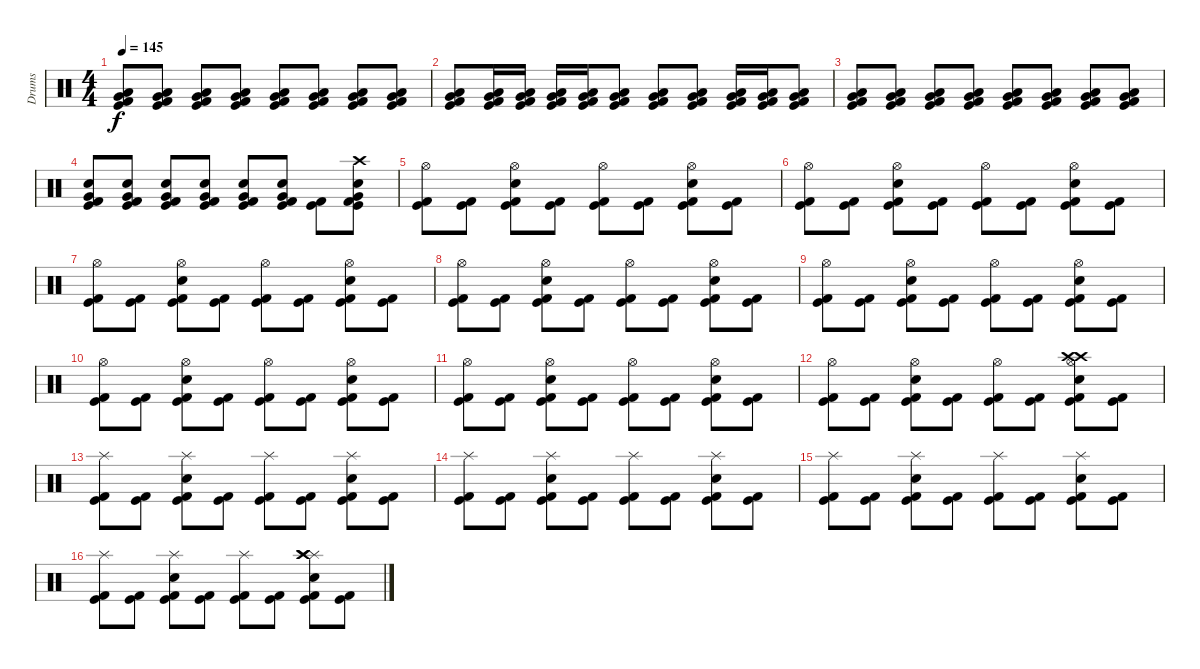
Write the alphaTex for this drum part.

\track ("Drums" "Drums") {instrument percussion}
\staff {score}
\articulation defaults
\ts (4 4)
\tempo 145
\clef neutral
\ks c
("Very Low Tom (hit)" "Low Floor Tom (hit)" "Kick (hit) 2" "Kick (hit)").8{dy f} ("Very Low Tom (hit)" "Low Floor Tom (hit)" "Kick (hit) 2" "Kick (hit)").8 ("Very Low Tom (hit)" "Low Floor Tom (hit)" "Kick (hit) 2" "Kick (hit)").8 ("Very Low Tom (hit)" "Low Floor Tom (hit)" "Kick (hit) 2" "Kick (hit)").8 ("Very Low Tom (hit)" "Low Floor Tom (hit)" "Kick (hit) 2" "Kick (hit)").8 ("Very Low Tom (hit)" "Low Floor Tom (hit)" "Kick (hit) 2" "Kick (hit)").8 ("Very Low Tom (hit)" "Low Floor Tom (hit)" "Kick (hit) 2" "Kick (hit)").8 ("Very Low Tom (hit)" "Low Floor Tom (hit)" "Kick (hit) 2" "Kick (hit)").8 |
("Very Low Tom (hit)" "Low Floor Tom (hit)" "Kick (hit) 2" "Kick (hit)").8 ("Very Low Tom (hit)" "Low Floor Tom (hit)" "Kick (hit) 2" "Kick (hit)").16 ("Very Low Tom (hit)" "Low Floor Tom (hit)" "Kick (hit) 2" "Kick (hit)").16 ("Very Low Tom (hit)" "Low Floor Tom (hit)" "Kick (hit) 2" "Kick (hit)").16 ("Very Low Tom (hit)" "Low Floor Tom (hit)" "Kick (hit) 2" "Kick (hit)").16 ("Very Low Tom (hit)" "Low Floor Tom (hit)" "Kick (hit) 2" "Kick (hit)").8 ("Low Tom (hit)" "Very Low Tom (hit)" "Kick (hit) 2" "Kick (hit)").8 ("Low Tom (hit)" "Very Low Tom (hit)" "Kick (hit) 2" "Kick (hit)").8 ("Low Tom (hit)" "Very Low Tom (hit)" "Kick (hit) 2" "Kick (hit)").16 ("Very Low Tom (hit)" "Low Floor Tom (hit)" "Kick (hit) 2" "Kick (hit)").16 ("Very Low Tom (hit)" "Low Floor Tom (hit)" "Kick (hit) 2" "Kick (hit)").8 |
("Very Low Tom (hit)" "Low Floor Tom (hit)" "Kick (hit) 2" "Kick (hit)").8 ("Very Low Tom (hit)" "Low Floor Tom (hit)" "Kick (hit) 2" "Kick (hit)").8 ("Very Low Tom (hit)" "Low Floor Tom (hit)" "Kick (hit) 2" "Kick (hit)").8 ("Very Low Tom (hit)" "Low Floor Tom (hit)" "Kick (hit) 2" "Kick (hit)").8 ("Very Low Tom (hit)" "Low Floor Tom (hit)" "Kick (hit) 2" "Kick (hit)").8 ("Very Low Tom (hit)" "Low Floor Tom (hit)" "Kick (hit) 2" "Kick (hit)").8 ("Very Low Tom (hit)" "Low Floor Tom (hit)" "Kick (hit) 2" "Kick (hit)").8 ("Very Low Tom (hit)" "Low Floor Tom (hit)" "Kick (hit) 2" "Kick (hit)").8 |
("Very Low Tom (hit)" "Snare (hit) 2" "Kick (hit) 2" "Kick (hit)").8 ("Very Low Tom (hit)" "Snare (hit) 2" "Kick (hit) 2" "Kick (hit)").8 ("Very Low Tom (hit)" "Snare (hit) 2" "Kick (hit) 2" "Kick (hit)").8 ("Very Low Tom (hit)" "Snare (hit) 2" "Kick (hit) 2" "Kick (hit)").8 ("Very Low Tom (hit)" "Snare (hit) 2" "Kick (hit) 2" "Kick (hit)").8 ("Very Low Tom (hit)" "Snare (hit) 2" "Kick (hit) 2" "Kick (hit)").8 ("Kick (hit) 2" "Kick (hit)").8 ("Very Low Tom (hit)" "Snare (hit) 2" "Kick (hit) 2" "Crash high (hit)" "Kick (hit)").8 |
("Hi-Hat (open)" "Kick (hit) 2" "Kick (hit)").8 ("Kick (hit) 2" "Kick (hit)").8 ("Hi-Hat (open)" "Snare (hit) 2" "Kick (hit) 2" "Kick (hit)").8 ("Kick (hit) 2" "Kick (hit)").8 ("Hi-Hat (open)" "Kick (hit) 2" "Kick (hit)").8 ("Kick (hit) 2" "Kick (hit)").8 ("Hi-Hat (open)" "Snare (hit) 2" "Kick (hit) 2" "Kick (hit)").8 ("Kick (hit) 2" "Kick (hit)").8 |
("Hi-Hat (open)" "Kick (hit) 2" "Kick (hit)").8 ("Kick (hit) 2" "Kick (hit)").8 ("Hi-Hat (open)" "Snare (hit) 2" "Kick (hit) 2" "Kick (hit)").8 ("Kick (hit) 2" "Kick (hit)").8 ("Hi-Hat (open)" "Kick (hit) 2" "Kick (hit)").8 ("Kick (hit) 2" "Kick (hit)").8 ("Hi-Hat (open)" "Snare (hit) 2" "Kick (hit) 2" "Kick (hit)").8 ("Kick (hit) 2" "Kick (hit)").8 |
("Hi-Hat (open)" "Kick (hit) 2" "Kick (hit)").8 ("Kick (hit) 2" "Kick (hit)").8 ("Hi-Hat (open)" "Snare (hit) 2" "Kick (hit) 2" "Kick (hit)").8 ("Kick (hit) 2" "Kick (hit)").8 ("Hi-Hat (open)" "Kick (hit) 2" "Kick (hit)").8 ("Kick (hit) 2" "Kick (hit)").8 ("Hi-Hat (open)" "Snare (hit) 2" "Kick (hit) 2" "Kick (hit)").8 ("Kick (hit) 2" "Kick (hit)").8 |
("Hi-Hat (open)" "Kick (hit) 2" "Kick (hit)").8 ("Kick (hit) 2" "Kick (hit)").8 ("Hi-Hat (open)" "Snare (hit) 2" "Kick (hit) 2" "Kick (hit)").8 ("Kick (hit) 2" "Kick (hit)").8 ("Hi-Hat (open)" "Kick (hit) 2" "Kick (hit)").8 ("Kick (hit) 2" "Kick (hit)").8 ("Hi-Hat (open)" "Snare (hit) 2" "Kick (hit) 2" "Kick (hit)").8 ("Kick (hit) 2" "Kick (hit)").8 |
("Hi-Hat (open)" "Kick (hit) 2" "Kick (hit)").8 ("Kick (hit) 2" "Kick (hit)").8 ("Hi-Hat (open)" "Snare (hit) 2" "Kick (hit) 2" "Kick (hit)").8 ("Kick (hit) 2" "Kick (hit)").8 ("Hi-Hat (open)" "Kick (hit) 2" "Kick (hit)").8 ("Kick (hit) 2" "Kick (hit)").8 ("Hi-Hat (open)" "Snare (hit) 2" "Kick (hit) 2" "Kick (hit)").8 ("Kick (hit) 2" "Kick (hit)").8 |
("Hi-Hat (open)" "Kick (hit) 2" "Kick (hit)").8 ("Kick (hit) 2" "Kick (hit)").8 ("Hi-Hat (open)" "Snare (hit) 2" "Kick (hit) 2" "Kick (hit)").8 ("Kick (hit) 2" "Kick (hit)").8 ("Hi-Hat (open)" "Kick (hit) 2" "Kick (hit)").8 ("Kick (hit) 2" "Kick (hit)").8 ("Hi-Hat (open)" "Snare (hit) 2" "Kick (hit) 2" "Kick (hit)").8 ("Kick (hit) 2" "Kick (hit)").8 |
("Hi-Hat (open)" "Kick (hit) 2" "Kick (hit)").8 ("Kick (hit) 2" "Kick (hit)").8 ("Hi-Hat (open)" "Snare (hit) 2" "Kick (hit) 2" "Kick (hit)").8 ("Kick (hit) 2" "Kick (hit)").8 ("Hi-Hat (open)" "Kick (hit) 2" "Kick (hit)").8 ("Kick (hit) 2" "Kick (hit)").8 ("Hi-Hat (open)" "Snare (hit) 2" "Kick (hit) 2" "Kick (hit)").8 ("Kick (hit) 2" "Kick (hit)").8 |
("Hi-Hat (open)" "Kick (hit) 2" "Kick (hit)").8 ("Kick (hit) 2" "Kick (hit)").8 ("Hi-Hat (open)" "Snare (hit) 2" "Kick (hit) 2" "Kick (hit)").8 ("Kick (hit) 2" "Kick (hit)").8 ("Hi-Hat (open)" "Kick (hit) 2" "Kick (hit)").8 ("Kick (hit) 2" "Kick (hit)").8 ("Hi-Hat (open)" "Snare (hit) 2" "Kick (hit) 2" "Kick (hit)" "Crash high (hit)" "Crash high (hit)").8 ("Kick (hit) 2" "Kick (hit)").8 |
("Splash (hit)" "Kick (hit) 2" "Kick (hit)").8 ("Kick (hit) 2" "Kick (hit)").8 ("Splash (hit)" "Snare (hit) 2" "Kick (hit) 2" "Kick (hit)").8 ("Kick (hit) 2" "Kick (hit)").8 ("Splash (hit)" "Kick (hit) 2" "Kick (hit)").8 ("Kick (hit) 2" "Kick (hit)").8 ("Splash (hit)" "Snare (hit) 2" "Kick (hit) 2" "Kick (hit)").8 ("Kick (hit) 2" "Kick (hit)").8 |
("Splash (hit)" "Kick (hit) 2" "Kick (hit)").8 ("Kick (hit) 2" "Kick (hit)").8 ("Splash (hit)" "Snare (hit) 2" "Kick (hit) 2" "Kick (hit)").8 ("Kick (hit) 2" "Kick (hit)").8 ("Splash (hit)" "Kick (hit) 2" "Kick (hit)").8 ("Kick (hit) 2" "Kick (hit)").8 ("Splash (hit)" "Snare (hit) 2" "Kick (hit) 2" "Kick (hit)").8 ("Kick (hit) 2" "Kick (hit)").8 |
("Splash (hit)" "Kick (hit) 2" "Kick (hit)").8 ("Kick (hit) 2" "Kick (hit)").8 ("Splash (hit)" "Snare (hit) 2" "Kick (hit) 2" "Kick (hit)").8 ("Kick (hit) 2" "Kick (hit)").8 ("Splash (hit)" "Kick (hit) 2" "Kick (hit)").8 ("Kick (hit) 2" "Kick (hit)").8 ("Splash (hit)" "Snare (hit) 2" "Kick (hit) 2" "Kick (hit)").8 ("Kick (hit) 2" "Kick (hit)").8 |
("Splash (hit)" "Kick (hit) 2" "Kick (hit)").8 ("Kick (hit) 2" "Kick (hit)").8 ("Splash (hit)" "Snare (hit) 2" "Kick (hit) 2" "Kick (hit)").8 ("Kick (hit) 2" "Kick (hit)").8 ("Splash (hit)" "Kick (hit) 2" "Kick (hit)").8 ("Kick (hit) 2" "Kick (hit)").8 ("Splash (hit)" "Snare (hit) 2" "Kick (hit) 2" "Kick (hit)" "Crash high (hit)" "Crash high (hit)").8 ("Kick (hit) 2" "Kick (hit)").8
